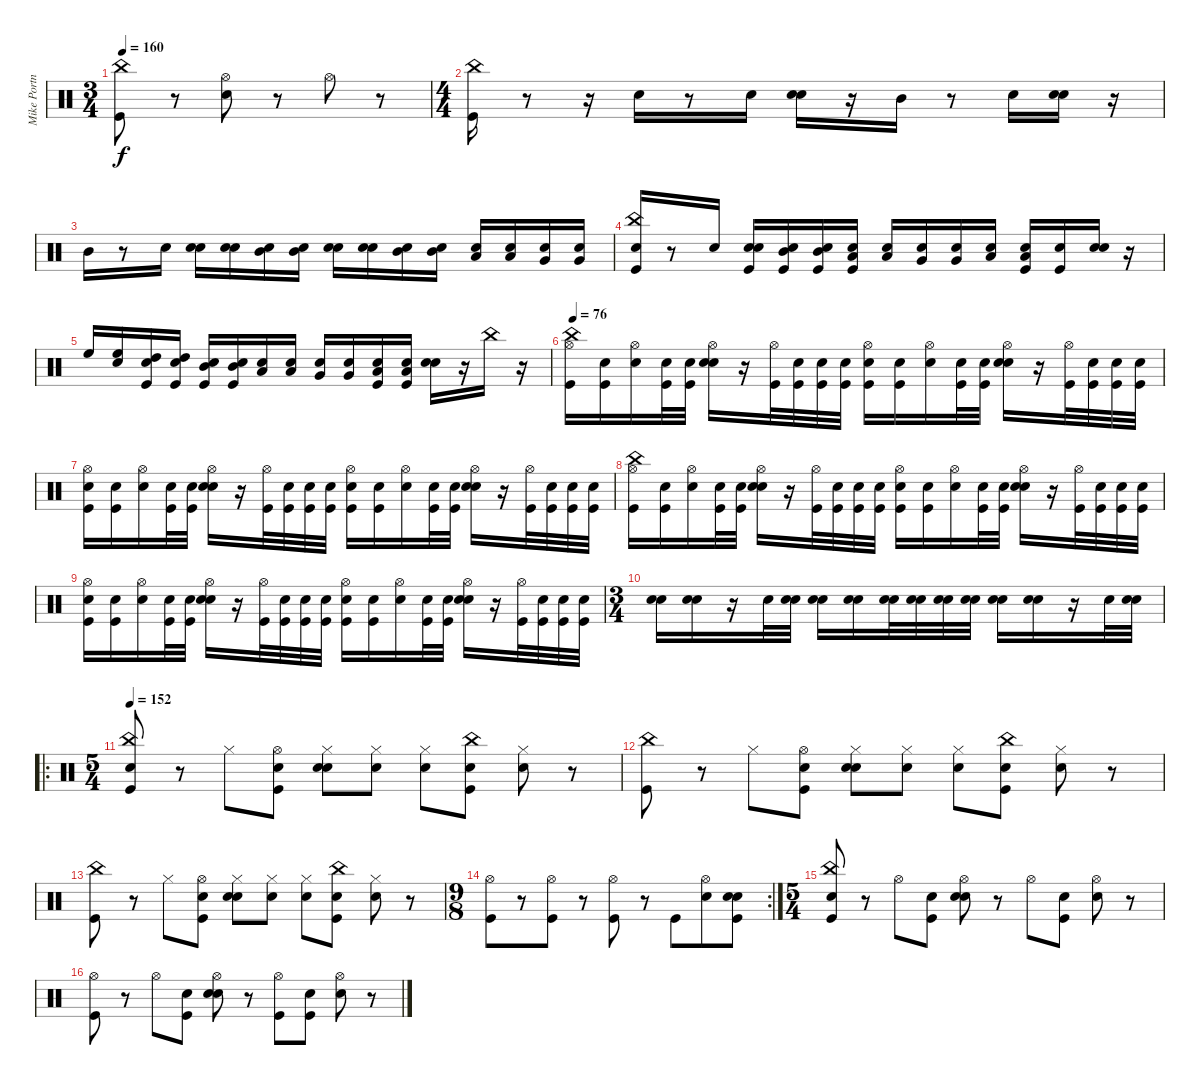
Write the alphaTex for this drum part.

\track ("Mike Portnoy" "Mike Portn") {instrument percussion}
\staff {score}
\articulation defaults
\ts (3 4)
\tempo 160
\clef neutral
\ks c
("Kick (hit)" "China (hit)").8{dy f} r.8 ("Snare (hit) 2" "Hi-Hat (open)").8 r.8 "Hi-Hat (open)".8 r.8 |
\ts (4 4)
("Kick (hit)" "China (hit)").16 r.8 r.16 "Snare (hit) 2".16 r.8 "Snare (hit) 2".16 ("Snare (hit)" "Snare (hit) 2").16 r.16 "Mid Tom (hit)".16 r.8 "Snare (hit) 2".16 ("Snare (hit)" "Snare (hit) 2").16 r.16 |
"Mid Tom (hit)".16 r.8 "Snare (hit) 2".16 ("Snare (hit)" "Snare (hit) 2").16 ("Snare (hit)" "Snare (hit) 2").16 ("Snare (hit)" "Mid Tom (hit)").16 ("Snare (hit)" "Mid Tom (hit)").16 ("Snare (hit)" "Snare (hit) 2").16 ("Snare (hit)" "Snare (hit) 2").16 ("Snare (hit)" "Mid Tom (hit)").16 ("Snare (hit)" "Mid Tom (hit)").16 ("Snare (hit)" "Low Tom (hit)").16 ("Snare (hit)" "Low Tom (hit)").16 ("Snare (hit)" "Very Low Tom (hit)").16 ("Snare (hit)" "Very Low Tom (hit)").16 |
("Snare (hit)" "Kick (hit)" "China (hit)").16 r.8 "Snare (hit) 2".16 ("Snare (hit)" "Kick (hit)" "Snare (hit) 2").16 ("Snare (hit)" "Kick (hit)" "Mid Tom (hit)").16 ("Snare (hit)" "Kick (hit)" "Mid Tom (hit)").16 ("Snare (hit)" "Kick (hit)" "Low Tom (hit)").16 ("Snare (hit)" "Low Tom (hit)").16 ("Snare (hit)" "Very Low Tom (hit)").16 ("Snare (hit)" "Very Low Tom (hit)").16 ("Snare (hit)" "Low Floor Tom (hit)").16 ("Snare (hit)" "Kick (hit)" "Low Floor Tom (hit)").16 ("Snare (hit)" "Kick (hit)").16 ("Snare (hit)" "Snare (hit) 2").16 r.16 |
"High Floor Tom (hit)".16 ("Snare (hit)" "High Floor Tom (hit)").16 ("Snare (hit)" "Kick (hit)" "High Tom (hit)").16 ("Snare (hit)" "Kick (hit)" "High Tom (hit)").16 ("Snare (hit)" "Kick (hit)" "Mid Tom (hit)").16 ("Snare (hit)" "Kick (hit)" "Mid Tom (hit)").16 ("Snare (hit)" "Low Tom (hit)").16 ("Snare (hit)" "Low Tom (hit)").16 ("Snare (hit)" "Very Low Tom (hit)").16 ("Snare (hit)" "Very Low Tom (hit)").16 ("Snare (hit)" "Kick (hit)" "Low Floor Tom (hit)").16 ("Snare (hit)" "Kick (hit)" "Low Floor Tom (hit)").16 ("Snare (hit)" "Snare (hit) 2").16 r.16 "China (hit)".16 r.16 |
\tempo 76
("Kick (hit)" "Hi-Hat (open)" "China (hit)").16 ("Snare (hit)" "Kick (hit)").16 ("Snare (hit)" "Hi-Hat (open)").16 ("Snare (hit)" "Kick (hit)").32 ("Snare (hit)" "Kick (hit)").32 ("Snare (hit)" "Snare (hit) 2" "Hi-Hat (open)").16 r.16 ("Kick (hit)" "Hi-Hat (open)").32 ("Snare (hit)" "Kick (hit)").32 ("Snare (hit)" "Kick (hit)").32 ("Snare (hit)" "Kick (hit)").32 ("Snare (hit)" "Kick (hit)" "Hi-Hat (open)").16 ("Snare (hit)" "Kick (hit)").16 ("Snare (hit)" "Hi-Hat (open)").16 ("Snare (hit)" "Kick (hit)").32 ("Snare (hit)" "Kick (hit)").32 ("Snare (hit)" "Snare (hit) 2" "Hi-Hat (open)").16 r.16 ("Kick (hit)" "Hi-Hat (open)").32 ("Snare (hit)" "Kick (hit)").32 ("Snare (hit)" "Kick (hit)").32 ("Snare (hit)" "Kick (hit)").32 |
("Snare (hit)" "Kick (hit)" "Hi-Hat (open)").16 ("Snare (hit)" "Kick (hit)").16 ("Snare (hit)" "Hi-Hat (open)").16 ("Snare (hit)" "Kick (hit)").32 ("Snare (hit)" "Kick (hit)").32 ("Snare (hit)" "Snare (hit) 2" "Hi-Hat (open)").16 r.16 ("Kick (hit)" "Hi-Hat (open)").32 ("Snare (hit)" "Kick (hit)").32 ("Snare (hit)" "Kick (hit)").32 ("Snare (hit)" "Kick (hit)").32 ("Snare (hit)" "Kick (hit)" "Hi-Hat (open)").16 ("Snare (hit)" "Kick (hit)").16 ("Snare (hit)" "Hi-Hat (open)").16 ("Snare (hit)" "Kick (hit)").32 ("Snare (hit)" "Kick (hit)").32 ("Snare (hit)" "Snare (hit) 2" "Hi-Hat (open)").16 r.16 ("Kick (hit)" "Hi-Hat (open)").32 ("Snare (hit)" "Kick (hit)").32 ("Snare (hit)" "Kick (hit)").32 ("Snare (hit)" "Kick (hit)").32 |
("Kick (hit)" "Hi-Hat (open)" "China (hit)").16 ("Snare (hit)" "Kick (hit)").16 ("Snare (hit)" "Hi-Hat (open)").16 ("Snare (hit)" "Kick (hit)").32 ("Snare (hit)" "Kick (hit)").32 ("Snare (hit)" "Snare (hit) 2" "Hi-Hat (open)").16 r.16 ("Kick (hit)" "Hi-Hat (open)").32 ("Snare (hit)" "Kick (hit)").32 ("Snare (hit)" "Kick (hit)").32 ("Snare (hit)" "Kick (hit)").32 ("Snare (hit)" "Kick (hit)" "Hi-Hat (open)").16 ("Snare (hit)" "Kick (hit)").16 ("Snare (hit)" "Hi-Hat (open)").16 ("Snare (hit)" "Kick (hit)").32 ("Snare (hit)" "Kick (hit)").32 ("Snare (hit)" "Snare (hit) 2" "Hi-Hat (open)").16 r.16 ("Kick (hit)" "Hi-Hat (open)").32 ("Snare (hit)" "Kick (hit)").32 ("Snare (hit)" "Kick (hit)").32 ("Snare (hit)" "Kick (hit)").32 |
("Snare (hit)" "Kick (hit)" "Hi-Hat (open)").16 ("Snare (hit)" "Kick (hit)").16 ("Snare (hit)" "Hi-Hat (open)").16 ("Snare (hit)" "Kick (hit)").32 ("Snare (hit)" "Kick (hit)").32 ("Snare (hit)" "Snare (hit) 2" "Hi-Hat (open)").16 r.16 ("Kick (hit)" "Hi-Hat (open)").32 ("Snare (hit)" "Kick (hit)").32 ("Snare (hit)" "Kick (hit)").32 ("Snare (hit)" "Kick (hit)").32 ("Snare (hit)" "Kick (hit)" "Hi-Hat (open)").16 ("Snare (hit)" "Kick (hit)").16 ("Snare (hit)" "Hi-Hat (open)").16 ("Snare (hit)" "Kick (hit)").32 ("Snare (hit)" "Kick (hit)").32 ("Snare (hit)" "Snare (hit) 2" "Hi-Hat (open)").16 r.16 ("Kick (hit)" "Hi-Hat (open)").32 ("Snare (hit)" "Kick (hit)").32 ("Snare (hit)" "Kick (hit)").32 ("Snare (hit)" "Kick (hit)").32 |
\ts (3 4)
("Snare (hit)" "Snare (hit) 2").16 ("Snare (hit)" "Snare (hit) 2").16 r.16 "Snare (hit) 2".32 ("Snare (hit)" "Snare (hit) 2").32 ("Snare (hit)" "Snare (hit) 2").16 ("Snare (hit)" "Snare (hit) 2").16 ("Snare (hit)" "Snare (hit) 2").32 ("Snare (hit)" "Snare (hit) 2").32 ("Snare (hit)" "Snare (hit) 2").32 ("Snare (hit)" "Snare (hit) 2").32 ("Snare (hit)" "Snare (hit) 2").16 ("Snare (hit)" "Snare (hit) 2").16 r.16 "Snare (hit) 2".32 ("Snare (hit)" "Snare (hit) 2").32 |
\ro
\ts (5 4)
\tempo 152
("Snare (hit)" "Kick (hit)" "China (hit)").8 r.8 "Hi-Hat (closed)".8 ("Snare (hit)" "Kick (hit)" "Hi-Hat (open)").8 ("Snare (hit)" "Snare (hit) 2" "Hi-Hat (closed)").8 ("Snare (hit)" "Hi-Hat (closed)").8 ("Snare (hit)" "Hi-Hat (closed)").8 ("Snare (hit)" "Kick (hit)" "China (hit)").8 ("Snare (hit)" "Hi-Hat (closed)").8 r.8 |
("Kick (hit)" "China (hit)").8 r.8 "Hi-Hat (closed)".8 ("Snare (hit)" "Kick (hit)" "Hi-Hat (open)").8 ("Snare (hit)" "Snare (hit) 2" "Hi-Hat (closed)").8 ("Snare (hit)" "Hi-Hat (closed)").8 ("Snare (hit)" "Hi-Hat (closed)").8 ("Snare (hit)" "Kick (hit)" "China (hit)").8 ("Snare (hit)" "Hi-Hat (closed)").8 r.8 |
("Kick (hit)" "China (hit)").8 r.8 "Hi-Hat (closed)".8 ("Snare (hit)" "Kick (hit)" "Hi-Hat (open)").8 ("Snare (hit)" "Snare (hit) 2" "Hi-Hat (closed)").8 ("Snare (hit)" "Hi-Hat (closed)").8 ("Snare (hit)" "Hi-Hat (closed)").8 ("Snare (hit)" "Kick (hit)" "China (hit)").8 ("Snare (hit)" "Hi-Hat (closed)").8 r.8 |
\rc 2
\ts (9 8)
("Kick (hit)" "Hi-Hat (open)").8 r.8 ("Kick (hit)" "Hi-Hat (open)").8 r.8 ("Kick (hit)" "Hi-Hat (open)").8 r.8 "Kick (hit)".8 ("Snare (hit)" "Hi-Hat (open)").8 ("Snare (hit)" "Kick (hit)" "Snare (hit) 2").8 |
\ts (5 4)
("Snare (hit)" "Kick (hit)" "China (hit)").8 r.8 "Hi-Hat (open)".8 ("Snare (hit)" "Kick (hit)").8 ("Snare (hit)" "Snare (hit) 2" "Hi-Hat (open)").8 r.8 "Hi-Hat (open)".8 ("Snare (hit)" "Kick (hit)").8 ("Snare (hit)" "Hi-Hat (open)").8 r.8 |
("Kick (hit)" "Hi-Hat (open)").8 r.8 "Hi-Hat (open)".8 ("Snare (hit)" "Kick (hit)").8 ("Snare (hit)" "Snare (hit) 2" "Hi-Hat (open)").8 r.8 ("Kick (hit)" "Hi-Hat (open)").8 ("Snare (hit)" "Kick (hit)").8 ("Snare (hit)" "Hi-Hat (open)").8 r.8
